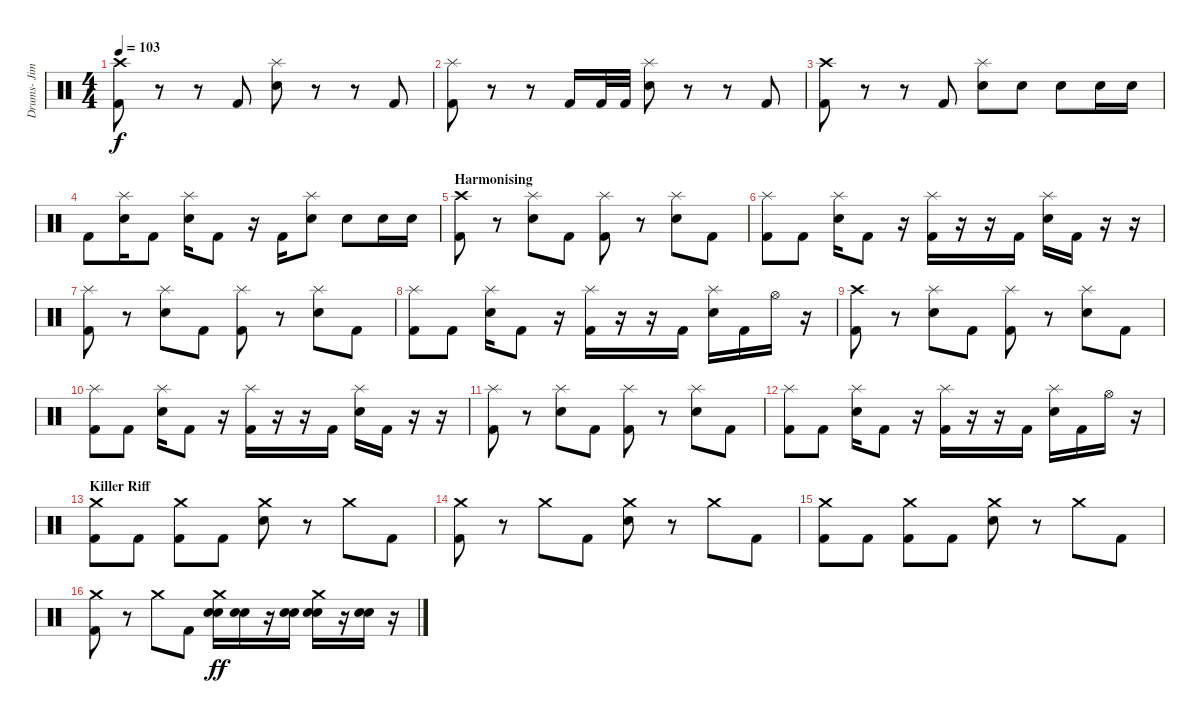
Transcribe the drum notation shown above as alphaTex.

\track ("Drums- Jimmy Bower" "Drums- Jim") {instrument percussion}
\staff {score}
\articulation defaults
\ts (4 4)
\tempo 103
\clef neutral
\ks c
("Crash high (hit)" "Kick (hit) 2").8{dy f} r.8 r.8 "Kick (hit) 2".8 ("Splash (hit)" "Electric Snare (hit)").8 r.8 r.8 "Kick (hit) 2".8 |
("Splash (hit)" "Kick (hit) 2").8 r.8 r.8 "Kick (hit) 2".16 "Kick (hit) 2".32 "Kick (hit) 2".32 ("Splash (hit)" "Electric Snare (hit)").8 r.8 r.8 "Kick (hit) 2".8 |
("Crash high (hit)" "Kick (hit) 2").8 r.8 r.8 "Kick (hit) 2".8 ("Splash (hit)" "Electric Snare (hit)").8 "Electric Snare (hit)".8 "Electric Snare (hit)".8 "Electric Snare (hit)".16 "Electric Snare (hit)".16 |
"Kick (hit) 2".8 ("Splash (hit)" "Electric Snare (hit)").16 "Kick (hit) 2".8 ("Splash (hit)" "Electric Snare (hit)").16 "Kick (hit) 2".8 r.16 "Kick (hit) 2".16 ("Splash (hit)" "Electric Snare (hit)").8 "Electric Snare (hit)".8 "Electric Snare (hit)".16 "Electric Snare (hit)".16 |
\section ("" "Harmonising")
("Crash high (hit)" "Kick (hit) 2").8 r.8 ("Splash (hit)" "Electric Snare (hit)").8 "Kick (hit) 2".8 ("Splash (hit)" "Kick (hit) 2").8 r.8 ("Splash (hit)" "Electric Snare (hit)").8 "Kick (hit) 2".8 |
("Splash (hit)" "Kick (hit) 2").8 "Kick (hit) 2".8 ("Splash (hit)" "Electric Snare (hit)").16 "Kick (hit) 2".8 r.16 ("Splash (hit)" "Kick (hit) 2").16 r.16 r.16 "Kick (hit) 2".16 ("Splash (hit)" "Electric Snare (hit)").16 "Kick (hit) 2".16 r.16 r.16 |
("Splash (hit)" "Kick (hit) 2").8 r.8 ("Splash (hit)" "Electric Snare (hit)").8 "Kick (hit) 2".8 ("Splash (hit)" "Kick (hit) 2").8 r.8 ("Splash (hit)" "Electric Snare (hit)").8 "Kick (hit) 2".8 |
("Splash (hit)" "Kick (hit) 2").8 "Kick (hit) 2".8 ("Splash (hit)" "Electric Snare (hit)").16 "Kick (hit) 2".8 r.16 ("Splash (hit)" "Kick (hit) 2").16 r.16 r.16 "Kick (hit) 2".16 ("Splash (hit)" "Electric Snare (hit)").16 "Kick (hit) 2".16 "Hi-Hat (open)".16 r.16 |
("Crash high (hit)" "Kick (hit) 2").8 r.8 ("Splash (hit)" "Electric Snare (hit)").8 "Kick (hit) 2".8 ("Splash (hit)" "Kick (hit) 2").8 r.8 ("Splash (hit)" "Electric Snare (hit)").8 "Kick (hit) 2".8 |
("Splash (hit)" "Kick (hit) 2").8 "Kick (hit) 2".8 ("Splash (hit)" "Electric Snare (hit)").16 "Kick (hit) 2".8 r.16 ("Splash (hit)" "Kick (hit) 2").16 r.16 r.16 "Kick (hit) 2".16 ("Splash (hit)" "Electric Snare (hit)").16 "Kick (hit) 2".16 r.16 r.16 |
("Splash (hit)" "Kick (hit) 2").8 r.8 ("Splash (hit)" "Electric Snare (hit)").8 "Kick (hit) 2".8 ("Splash (hit)" "Kick (hit) 2").8 r.8 ("Splash (hit)" "Electric Snare (hit)").8 "Kick (hit) 2".8 |
("Splash (hit)" "Kick (hit) 2").8 "Kick (hit) 2".8 ("Splash (hit)" "Electric Snare (hit)").16 "Kick (hit) 2".8 r.16 ("Splash (hit)" "Kick (hit) 2").16 r.16 r.16 "Kick (hit) 2".16 ("Splash (hit)" "Electric Snare (hit)").16 "Kick (hit) 2".16 "Hi-Hat (open)".16 r.16 |
\section ("" "Killer Riff")
("Crash medium (hit)" "Kick (hit) 2").8 "Kick (hit) 2".8 ("Crash medium (hit)" "Kick (hit) 2").8 "Kick (hit) 2".8 ("Crash medium (hit)" "Electric Snare (hit)").8 r.8 "Crash medium (hit)".8 "Kick (hit) 2".8 |
("Crash medium (hit)" "Kick (hit) 2").8 r.8 "Crash medium (hit)".8 "Kick (hit) 2".8 ("Crash medium (hit)" "Electric Snare (hit)").8 r.8 "Crash medium (hit)".8 "Kick (hit) 2".8 |
("Crash medium (hit)" "Kick (hit) 2").8 "Kick (hit) 2".8 ("Crash medium (hit)" "Kick (hit) 2").8 "Kick (hit) 2".8 ("Crash medium (hit)" "Electric Snare (hit)").8 r.8 "Crash medium (hit)".8 "Kick (hit) 2".8 |
("Crash medium (hit)" "Kick (hit) 2").8 r.8 "Crash medium (hit)".8 "Kick (hit) 2".8 ("Crash medium (hit)" "Electric Snare (hit)" "Electric Snare (hit)").16{dy ff} ("Electric Snare (hit)" "Electric Snare (hit)").16 r.16 ("Electric Snare (hit)" "Electric Snare (hit)").16 ("Crash medium (hit)" "Electric Snare (hit)" "Electric Snare (hit)").16 r.16 ("Electric Snare (hit)" "Electric Snare (hit)").16 r.16
